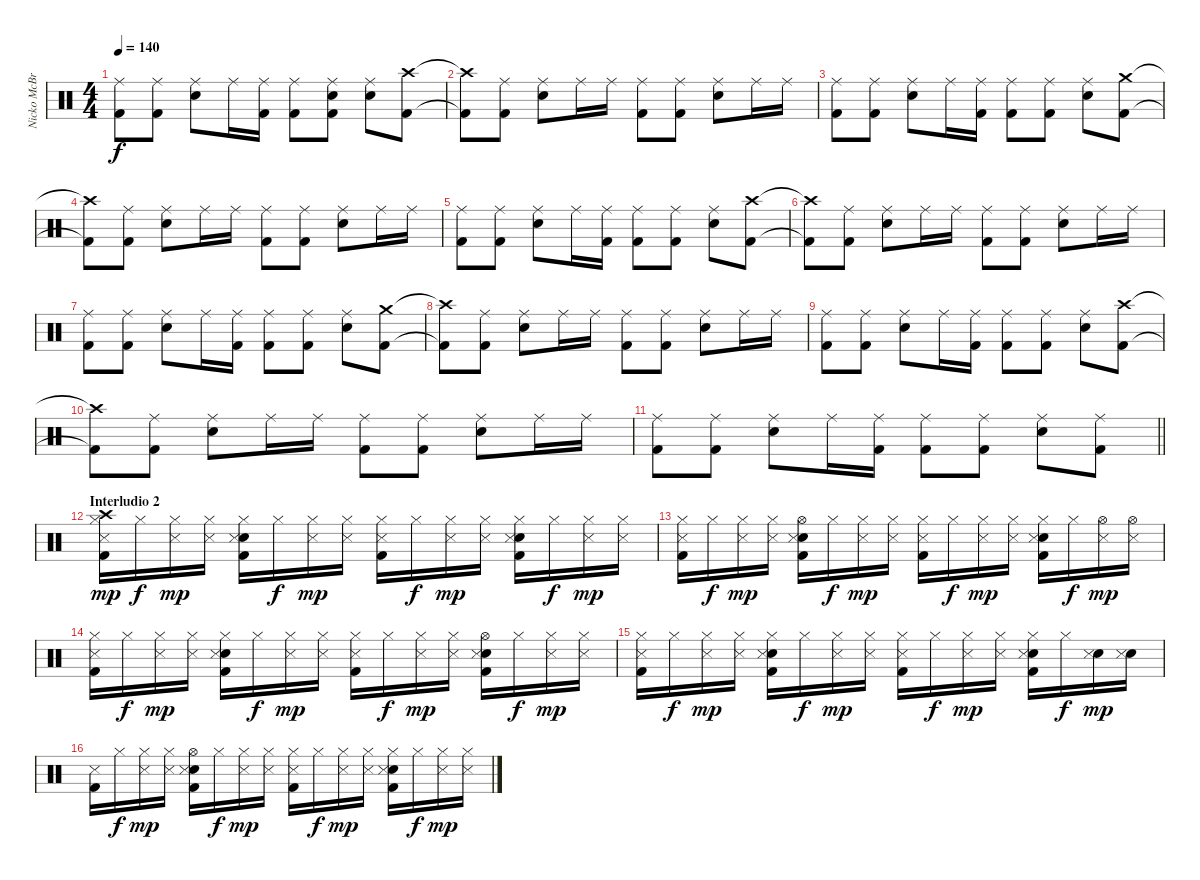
\track ("Nicko McBrain" "Nicko McBr") {instrument percussion}
\staff {score}
\articulation defaults
\ts (4 4)
\tempo 140
\clef neutral
\ks c
("Ride (middle)" "Kick (hit) 2").8{dy f} ("Ride (middle)" "Kick (hit) 2").8 ("Ride (middle)" "Snare (hit) 2").8 "Ride (middle)".16 ("Ride (middle)" "Kick (hit) 2").16 ("Ride (middle)" "Kick (hit) 2").8 ("Ride (middle)" "Snare (hit) 2" "Kick (hit) 2").8 ("Ride (middle)" "Snare (hit) 2").8 ("Crash high (hit)" "Kick (hit) 2").8 |
("Crash high (hit)"{t} "Kick (hit) 2"{t}).8 ("Ride (middle)" "Kick (hit) 2").8 ("Ride (middle)" "Snare (hit) 2").8 "Ride (middle)".16 "Ride (middle)".16 ("Ride (middle)" "Kick (hit) 2").8 ("Ride (middle)" "Kick (hit) 2").8 ("Ride (middle)" "Snare (hit) 2").8 "Ride (middle)".16 "Ride (middle)".16 |
("Ride (middle)" "Kick (hit) 2").8 ("Ride (middle)" "Kick (hit) 2").8 ("Ride (middle)" "Snare (hit) 2").8 "Ride (middle)".16 ("Ride (middle)" "Kick (hit) 2").16 ("Ride (middle)" "Kick (hit) 2").8 ("Ride (middle)" "Kick (hit) 2").8 ("Ride (middle)" "Snare (hit) 2").8 ("Crash medium (hit)" "Kick (hit) 2").8 |
("Crash high (hit)"{t} "Kick (hit) 2"{t}).8 ("Ride (middle)" "Kick (hit) 2").8 ("Ride (middle)" "Snare (hit) 2").8 "Ride (middle)".16 "Ride (middle)".16 ("Ride (middle)" "Kick (hit) 2").8 ("Ride (middle)" "Kick (hit) 2").8 ("Ride (middle)" "Snare (hit) 2").8 "Ride (middle)".16 "Ride (middle)".16 |
("Ride (middle)" "Kick (hit) 2").8 ("Ride (middle)" "Kick (hit) 2").8 ("Ride (middle)" "Snare (hit) 2").8 "Ride (middle)".16 ("Ride (middle)" "Kick (hit) 2").16 ("Ride (middle)" "Kick (hit) 2").8 ("Ride (middle)" "Kick (hit) 2").8 ("Ride (middle)" "Snare (hit) 2").8 ("Crash high (hit)" "Kick (hit) 2").8 |
("Crash high (hit)"{t} "Kick (hit) 2"{t}).8 ("Ride (middle)" "Kick (hit) 2").8 ("Ride (middle)" "Snare (hit) 2").8 "Ride (middle)".16 "Ride (middle)".16 ("Ride (middle)" "Kick (hit) 2").8 ("Ride (middle)" "Kick (hit) 2").8 ("Ride (middle)" "Snare (hit) 2").8 "Ride (middle)".16 "Ride (middle)".16 |
("Ride (middle)" "Kick (hit) 2").8 ("Ride (middle)" "Kick (hit) 2").8 ("Ride (middle)" "Snare (hit) 2").8 "Ride (middle)".16 ("Ride (middle)" "Kick (hit) 2").16 ("Ride (middle)" "Kick (hit) 2").8 ("Ride (middle)" "Kick (hit) 2").8 ("Ride (middle)" "Snare (hit) 2").8 ("Crash medium (hit)" "Kick (hit) 2").8 |
("Crash high (hit)"{t} "Kick (hit) 2"{t}).8 ("Ride (middle)" "Kick (hit) 2").8 ("Ride (middle)" "Snare (hit) 2").8 "Ride (middle)".16 "Ride (middle)".16 ("Ride (middle)" "Kick (hit) 2").8 ("Ride (middle)" "Kick (hit) 2").8 ("Ride (middle)" "Snare (hit) 2").8 "Ride (middle)".16 "Ride (middle)".16 |
("Ride (middle)" "Kick (hit) 2").8 ("Ride (middle)" "Kick (hit) 2").8 ("Ride (middle)" "Snare (hit) 2").8 "Ride (middle)".16 ("Ride (middle)" "Kick (hit) 2").16 ("Ride (middle)" "Kick (hit) 2").8 ("Ride (middle)" "Kick (hit) 2").8 ("Ride (middle)" "Snare (hit) 2").8 ("Crash high (hit)" "Kick (hit) 2").8 |
("Crash high (hit)"{t} "Kick (hit) 2"{t}).8 ("Ride (middle)" "Kick (hit) 2").8 ("Ride (middle)" "Snare (hit) 2").8 "Ride (middle)".16 "Ride (middle)".16 ("Ride (middle)" "Kick (hit) 2").8 ("Ride (middle)" "Kick (hit) 2").8 ("Ride (middle)" "Snare (hit) 2").8 "Ride (middle)".16 "Ride (middle)".16 |
\barLineRight lightlight
("Ride (middle)" "Kick (hit) 2").8 ("Ride (middle)" "Kick (hit) 2").8 ("Ride (middle)" "Snare (hit) 2").8 "Ride (middle)".16 ("Ride (middle)" "Kick (hit) 2").16 ("Ride (middle)" "Kick (hit) 2").8 ("Ride (middle)" "Kick (hit) 2").8 ("Ride (middle)" "Snare (hit) 2").8 ("Ride (middle)" "Kick (hit) 2").8 |
\section ("" "Interludio 2")
("Hi-Hat (closed)" "Snare (side stick) 3" "Crash high (hit)" "Kick (hit) 2").16{dy mp} "Hi-Hat (closed)".16{dy f} ("Hi-Hat (closed)" "Snare (side stick) 3").16{dy mp} ("Hi-Hat (closed)" "Snare (side stick) 3").16 ("Hi-Hat (closed)" "Snare (hit) 2" "Snare (side stick) 3" "Kick (hit) 2").16 "Hi-Hat (closed)".16{dy f} ("Hi-Hat (closed)" "Snare (side stick) 3").16{dy mp} ("Hi-Hat (closed)" "Snare (side stick) 3").16 ("Hi-Hat (closed)" "Snare (side stick) 3" "Kick (hit) 2").16 "Hi-Hat (closed)".16{dy f} ("Hi-Hat (closed)" "Snare (side stick) 3").16{dy mp} ("Hi-Hat (closed)" "Snare (side stick) 3").16 ("Hi-Hat (closed)" "Snare (hit) 2" "Snare (side stick) 3" "Kick (hit) 2").16 "Hi-Hat (closed)".16{dy f} ("Hi-Hat (closed)" "Snare (side stick) 3").16{dy mp} ("Hi-Hat (closed)" "Snare (side stick) 3").16 |
("Hi-Hat (closed)" "Snare (side stick) 3" "Kick (hit) 2").16 "Hi-Hat (closed)".16{dy f} ("Hi-Hat (closed)" "Snare (side stick) 3").16{dy mp} ("Hi-Hat (closed)" "Snare (side stick) 3").16 ("Hi-Hat (open)" "Snare (hit) 2" "Snare (side stick) 3" "Kick (hit) 2").16 "Hi-Hat (closed)".16{dy f} ("Hi-Hat (closed)" "Snare (side stick) 3").16{dy mp} ("Hi-Hat (closed)" "Snare (side stick) 3").16 ("Hi-Hat (closed)" "Snare (side stick) 3" "Kick (hit) 2").16 "Hi-Hat (closed)".16{dy f} ("Hi-Hat (closed)" "Snare (side stick) 3").16{dy mp} ("Hi-Hat (closed)" "Snare (side stick) 3").16 ("Hi-Hat (closed)" "Snare (hit) 2" "Snare (side stick) 3" "Kick (hit) 2").16 "Hi-Hat (closed)".16{dy f} ("Hi-Hat (open)" "Snare (side stick) 3").16{dy mp} ("Hi-Hat (open)" "Snare (side stick) 3").16 |
("Hi-Hat (closed)" "Snare (side stick) 3" "Kick (hit) 2").16 "Hi-Hat (closed)".16{dy f} ("Hi-Hat (closed)" "Snare (side stick) 3").16{dy mp} ("Hi-Hat (closed)" "Snare (side stick) 3").16 ("Hi-Hat (closed)" "Snare (hit) 2" "Snare (side stick) 3" "Kick (hit) 2").16 "Hi-Hat (closed)".16{dy f} ("Hi-Hat (closed)" "Snare (side stick) 3").16{dy mp} ("Hi-Hat (closed)" "Snare (side stick) 3").16 ("Hi-Hat (closed)" "Snare (side stick) 3" "Kick (hit) 2").16 "Hi-Hat (closed)".16{dy f} ("Hi-Hat (closed)" "Snare (side stick) 3").16{dy mp} ("Hi-Hat (closed)" "Snare (side stick) 3").16 ("Hi-Hat (open)" "Snare (hit) 2" "Snare (side stick) 3" "Kick (hit) 2").16 "Hi-Hat (closed)".16{dy f} ("Hi-Hat (closed)" "Snare (side stick) 3").16{dy mp} ("Hi-Hat (closed)" "Snare (side stick) 3").16 |
("Hi-Hat (closed)" "Snare (side stick) 3" "Kick (hit) 2").16 "Hi-Hat (closed)".16{dy f} ("Hi-Hat (closed)" "Snare (side stick) 3").16{dy mp} ("Hi-Hat (closed)" "Snare (side stick) 3").16 ("Hi-Hat (closed)" "Snare (hit) 2" "Snare (side stick) 3" "Kick (hit) 2").16 "Hi-Hat (closed)".16{dy f} ("Hi-Hat (closed)" "Snare (side stick) 3").16{dy mp} ("Hi-Hat (closed)" "Snare (side stick) 3").16 ("Hi-Hat (closed)" "Snare (side stick) 3" "Kick (hit) 2").16 "Hi-Hat (closed)".16{dy f} ("Hi-Hat (closed)" "Snare (side stick) 3").16{dy mp} ("Hi-Hat (closed)" "Snare (side stick) 3").16 ("Hi-Hat (closed)" "Snare (hit) 2" "Snare (side stick) 3" "Kick (hit) 2").16 "Hi-Hat (closed)".16{dy f} ("Snare (hit) 2" "Snare (side stick) 3").16{dy mp} ("Snare (hit) 2" "Snare (side stick) 3").16 |
("Snare (side stick) 3" "Kick (hit) 2").16 "Hi-Hat (closed)".16{dy f} ("Hi-Hat (closed)" "Snare (side stick) 3").16{dy mp} ("Hi-Hat (closed)" "Snare (side stick) 3").16 ("Hi-Hat (open)" "Snare (hit) 2" "Snare (side stick) 3" "Kick (hit) 2").16 "Hi-Hat (closed)".16{dy f} ("Hi-Hat (closed)" "Snare (side stick) 3").16{dy mp} ("Hi-Hat (closed)" "Snare (side stick) 3").16 ("Hi-Hat (closed)" "Snare (side stick) 3" "Kick (hit) 2").16 "Hi-Hat (closed)".16{dy f} ("Hi-Hat (closed)" "Snare (side stick) 3").16{dy mp} ("Hi-Hat (closed)" "Snare (side stick) 3").16 ("Hi-Hat (closed)" "Snare (hit) 2" "Snare (side stick) 3" "Kick (hit) 2").16 "Hi-Hat (closed)".16{dy f} ("Hi-Hat (closed)" "Snare (side stick) 3").16{dy mp} ("Hi-Hat (closed)" "Snare (side stick) 3").16
